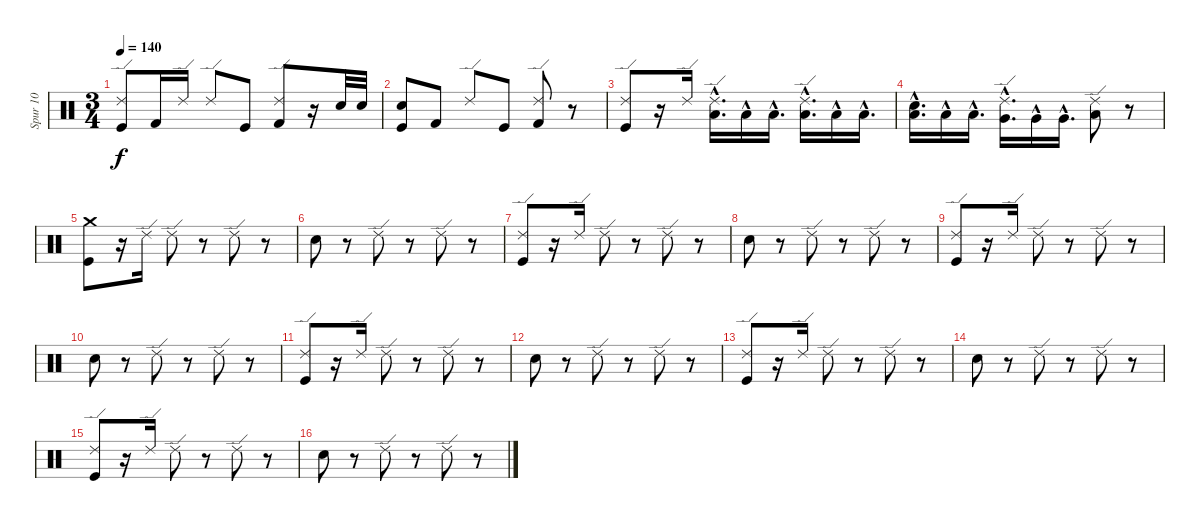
\track ("Spur 10" "Spur 10") {instrument percussion}
\staff {score}
\articulation defaults
\ts (3 4)
\tempo 140
\clef neutral
\ks c
("Ride (edge) 2" "Kick (hit)").8{dy f} "Kick (hit) 2".16 "Ride (edge) 2".16 "Ride (edge) 2".8 "Kick (hit)".8 ("Kick (hit) 2" "Ride (edge) 2").8 r.16 "Electric Snare (hit)".32 "Electric Snare (hit)".32 |
("Kick (hit)" "Snare (hit) 2").8 "Kick (hit) 2".8 "Ride (edge) 2".8 "Kick (hit)".8 ("Kick (hit) 2" "Ride (edge) 2").8 r.8 |
("Ride (edge) 2" "Kick (hit)").8 r.16 "Ride (edge) 2".16 ("Low Tom (hit)"{hac} "Ride (edge) 2").16{d} "Low Tom (hit)"{hac}.16 "Low Tom (hit)"{hac}.16{d} ("Low Tom (hit)"{hac} "Ride (edge) 2").16{d} "Low Tom (hit)"{hac}.16 "Low Tom (hit)"{hac}.16{d} |
("Low Tom (hit)"{hac} "Snare (hit) 2").16{d} "Low Tom (hit)"{hac}.16 "Low Tom (hit)"{hac}.16{d} ("Very Low Tom (hit)"{hac} "Ride (edge) 2").16{d} "Very Low Tom (hit)"{hac}.16 "Very Low Tom (hit)"{hac}.16{d} ("Low Floor Tom (hit)" "Ride (edge) 2").8 r.8 |
("Kick (hit)" "Crash medium (hit)").8 r.16 "Ride (edge) 2".16 "Ride (edge) 2".8 r.8 "Ride (edge) 2".8 r.8 |
"Snare (hit) 2".8 r.8 "Ride (edge) 2".8 r.8 "Ride (edge) 2".8 r.8 |
("Ride (edge) 2" "Kick (hit)").8 r.16 "Ride (edge) 2".16 "Ride (edge) 2".8 r.8 "Ride (edge) 2".8 r.8 |
"Snare (hit) 2".8 r.8 "Ride (edge) 2".8 r.8 "Ride (edge) 2".8 r.8 |
("Ride (edge) 2" "Kick (hit)").8 r.16 "Ride (edge) 2".16 "Ride (edge) 2".8 r.8 "Ride (edge) 2".8 r.8 |
"Snare (hit) 2".8 r.8 "Ride (edge) 2".8 r.8 "Ride (edge) 2".8 r.8 |
("Ride (edge) 2" "Kick (hit)").8 r.16 "Ride (edge) 2".16 "Ride (edge) 2".8 r.8 "Ride (edge) 2".8 r.8 |
"Snare (hit) 2".8 r.8 "Ride (edge) 2".8 r.8 "Ride (edge) 2".8 r.8 |
("Ride (edge) 2" "Kick (hit)").8 r.16 "Ride (edge) 2".16 "Ride (edge) 2".8 r.8 "Ride (edge) 2".8 r.8 |
"Snare (hit) 2".8 r.8 "Ride (edge) 2".8 r.8 "Ride (edge) 2".8 r.8 |
("Ride (edge) 2" "Kick (hit)").8 r.16 "Ride (edge) 2".16 "Ride (edge) 2".8 r.8 "Ride (edge) 2".8 r.8 |
"Snare (hit) 2".8 r.8 "Ride (edge) 2".8 r.8 "Ride (edge) 2".8 r.8
